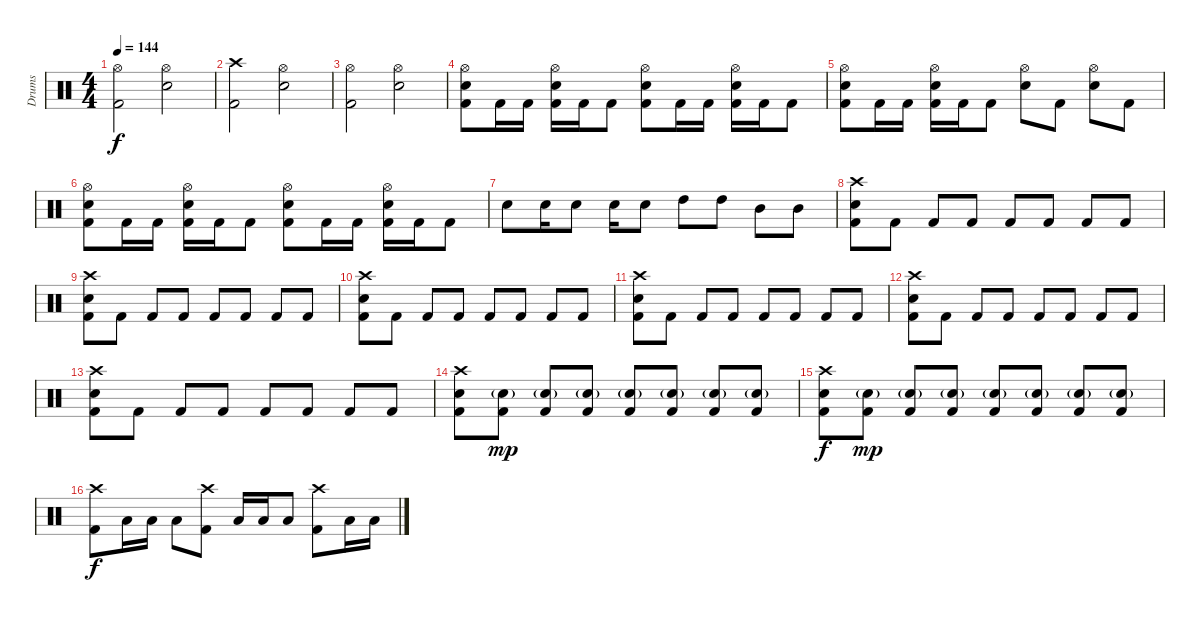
\track ("Drums" "Drums") {instrument percussion}
\staff {score}
\articulation defaults
\ts (4 4)
\tempo 144
\clef neutral
\ks c
("Hi-Hat (open)" "Kick (hit) 2").2{dy f} ("Hi-Hat (open)" "Snare (hit) 2").2 |
("Crash high (hit)" "Kick (hit) 2").2 ("Hi-Hat (open)" "Snare (hit) 2").2 |
("Hi-Hat (open)" "Kick (hit) 2").2 ("Hi-Hat (open)" "Snare (hit) 2").2 |
("Hi-Hat (open)" "Snare (hit) 2" "Kick (hit) 2").8 "Kick (hit) 2".16 "Kick (hit) 2".16 ("Hi-Hat (open)" "Snare (hit) 2" "Kick (hit) 2").16 "Kick (hit) 2".16 "Kick (hit) 2".8 ("Hi-Hat (open)" "Snare (hit) 2" "Kick (hit) 2").8 "Kick (hit) 2".16 "Kick (hit) 2".16 ("Hi-Hat (open)" "Snare (hit) 2" "Kick (hit) 2").16 "Kick (hit) 2".16 "Kick (hit) 2".8 |
("Hi-Hat (open)" "Snare (hit) 2" "Kick (hit) 2").8 "Kick (hit) 2".16 "Kick (hit) 2".16 ("Hi-Hat (open)" "Snare (hit) 2" "Kick (hit) 2").16 "Kick (hit) 2".16 "Kick (hit) 2".8 ("Hi-Hat (open)" "Snare (hit) 2").8 "Kick (hit) 2".8 ("Hi-Hat (open)" "Snare (hit) 2").8 "Kick (hit) 2".8 |
("Hi-Hat (open)" "Snare (hit) 2" "Kick (hit) 2").8 "Kick (hit) 2".16 "Kick (hit) 2".16 ("Hi-Hat (open)" "Snare (hit) 2" "Kick (hit) 2").16 "Kick (hit) 2".16 "Kick (hit) 2".8 ("Hi-Hat (open)" "Snare (hit) 2" "Kick (hit) 2").8 "Kick (hit) 2".16 "Kick (hit) 2".16 ("Hi-Hat (open)" "Snare (hit) 2" "Kick (hit) 2").16 "Kick (hit) 2".16 "Kick (hit) 2".8 |
"Snare (hit) 2".8 "Snare (hit) 2".16 "Snare (hit) 2".8 "Snare (hit) 2".16 "Snare (hit) 2".8 "High Tom (hit)".8 "High Tom (hit)".8 "Mid Tom (hit)".8 "Mid Tom (hit)".8 |
("Crash high (hit)" "Snare (hit) 2" "Kick (hit) 2").8 "Kick (hit) 2".8 "Kick (hit) 2".8 "Kick (hit) 2".8 "Kick (hit) 2".8 "Kick (hit) 2".8 "Kick (hit) 2".8 "Kick (hit) 2".8 |
("Crash high (hit)" "Snare (hit) 2" "Kick (hit) 2").8 "Kick (hit) 2".8 "Kick (hit) 2".8 "Kick (hit) 2".8 "Kick (hit) 2".8 "Kick (hit) 2".8 "Kick (hit) 2".8 "Kick (hit) 2".8 |
("Crash high (hit)" "Snare (hit) 2" "Kick (hit) 2").8 "Kick (hit) 2".8 "Kick (hit) 2".8 "Kick (hit) 2".8 "Kick (hit) 2".8 "Kick (hit) 2".8 "Kick (hit) 2".8 "Kick (hit) 2".8 |
("Crash high (hit)" "Snare (hit) 2" "Kick (hit) 2").8 "Kick (hit) 2".8 "Kick (hit) 2".8 "Kick (hit) 2".8 "Kick (hit) 2".8 "Kick (hit) 2".8 "Kick (hit) 2".8 "Kick (hit) 2".8 |
("Crash high (hit)" "Snare (hit) 2" "Kick (hit) 2").8 "Kick (hit) 2".8 "Kick (hit) 2".8 "Kick (hit) 2".8 "Kick (hit) 2".8 "Kick (hit) 2".8 "Kick (hit) 2".8 "Kick (hit) 2".8 |
("Crash high (hit)" "Snare (hit) 2" "Kick (hit) 2").8 "Kick (hit) 2".8 "Kick (hit) 2".8 "Kick (hit) 2".8 "Kick (hit) 2".8 "Kick (hit) 2".8 "Kick (hit) 2".8 "Kick (hit) 2".8 |
("Crash high (hit)" "Snare (hit) 2" "Kick (hit) 2").8 ("Snare (hit) 2"{g} "Kick (hit) 2").8{dy mp} ("Snare (hit) 2"{g} "Kick (hit) 2").8 ("Snare (hit) 2"{g} "Kick (hit) 2").8 ("Snare (hit) 2"{g} "Kick (hit) 2").8 ("Snare (hit) 2"{g} "Kick (hit) 2").8 ("Snare (hit) 2"{g} "Kick (hit) 2").8 ("Snare (hit) 2"{g} "Kick (hit) 2").8 |
("Crash high (hit)" "Snare (hit) 2" "Kick (hit) 2").8{dy f} ("Snare (hit) 2"{g} "Kick (hit) 2").8{dy mp} ("Snare (hit) 2"{g} "Kick (hit) 2").8 ("Snare (hit) 2"{g} "Kick (hit) 2").8 ("Snare (hit) 2"{g} "Kick (hit) 2").8 ("Snare (hit) 2"{g} "Kick (hit) 2").8 ("Snare (hit) 2"{g} "Kick (hit) 2").8 ("Snare (hit) 2"{g} "Kick (hit) 2").8 |
("Crash high (hit)" "Kick (hit) 2").8{dy f} "Low Tom (hit)".16 "Low Tom (hit)".16 "Low Tom (hit)".8 ("Crash high (hit)" "Kick (hit) 2").8 "Low Tom (hit)".16 "Low Tom (hit)".16 "Low Tom (hit)".8 ("Crash high (hit)" "Kick (hit) 2").8 "Low Tom (hit)".16 "Low Tom (hit)".16
